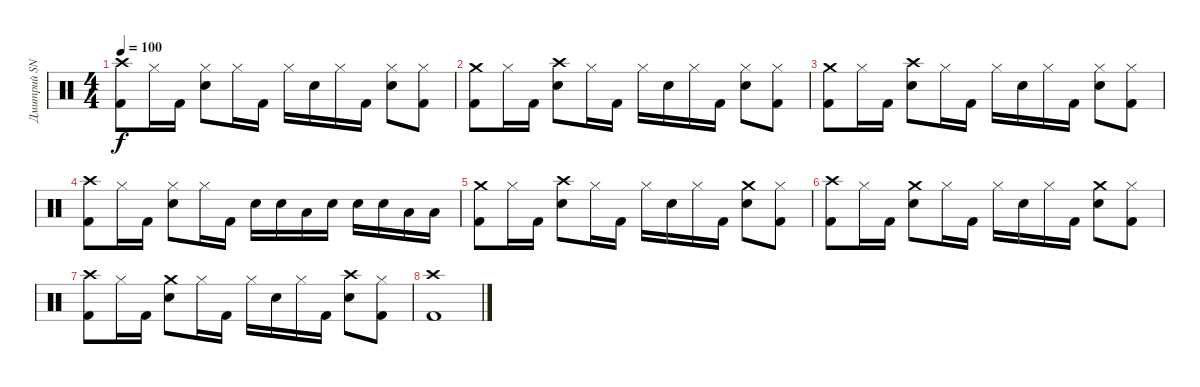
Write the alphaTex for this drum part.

\track ("Дмитрий SNAKE Хакимов" "Дмитрий SN") {instrument percussion}
\staff {score}
\articulation defaults
\ts (4 4)
\tempo 100
\clef neutral
\ks c
("Crash high (hit)" "Kick (hit) 2").8{dy f} "Hi-Hat (closed)".16 "Kick (hit) 2".16 ("Hi-Hat (closed)" "Snare (hit) 2").8 "Hi-Hat (closed)".16 "Kick (hit) 2".16 "Hi-Hat (closed)".16 "Snare (hit) 2".16 "Hi-Hat (closed)".16 "Kick (hit) 2".16 ("Hi-Hat (closed)" "Snare (hit) 2").8 ("Hi-Hat (closed)" "Kick (hit) 2").8 |
("Crash medium (hit)" "Kick (hit) 2").8 "Hi-Hat (closed)".16 "Kick (hit) 2".16 ("Crash high (hit)" "Snare (hit) 2").8 "Hi-Hat (closed)".16 "Kick (hit) 2".16 "Hi-Hat (closed)".16 "Snare (hit) 2".16 "Hi-Hat (closed)".16 "Kick (hit) 2".16 ("Hi-Hat (closed)" "Snare (hit) 2").8 ("Hi-Hat (closed)" "Kick (hit) 2").8 |
("Crash medium (hit)" "Kick (hit) 2").8 "Hi-Hat (closed)".16 "Kick (hit) 2".16 ("Crash high (hit)" "Snare (hit) 2").8 "Hi-Hat (closed)".16 "Kick (hit) 2".16 "Hi-Hat (closed)".16 "Snare (hit) 2".16 "Hi-Hat (closed)".16 "Kick (hit) 2".16 ("Hi-Hat (closed)" "Snare (hit) 2").8 ("Hi-Hat (closed)" "Kick (hit) 2").8 |
("Crash high (hit)" "Kick (hit) 2").8 "Hi-Hat (closed)".16 "Kick (hit) 2".16 ("Hi-Hat (closed)" "Snare (hit) 2").8 "Hi-Hat (closed)".16 "Kick (hit) 2".16 "Snare (hit) 2".16 "Snare (hit) 2".16 "Low Tom (hit)".16 "Snare (hit) 2".16 "Snare (hit) 2".16 "Snare (hit) 2".16 "Low Tom (hit)".16 "Low Tom (hit)".16 |
("Crash medium (hit)" "Kick (hit) 2").8 "Hi-Hat (closed)".16 "Kick (hit) 2".16 ("Crash high (hit)" "Snare (hit) 2").8 "Hi-Hat (closed)".16 "Kick (hit) 2".16 "Hi-Hat (closed)".16 "Snare (hit) 2".16 "Hi-Hat (closed)".16 "Kick (hit) 2".16 ("Crash medium (hit)" "Snare (hit) 2").8 ("Hi-Hat (closed)" "Kick (hit) 2").8 |
("Crash high (hit)" "Kick (hit) 2").8 "Hi-Hat (closed)".16 "Kick (hit) 2".16 ("Crash medium (hit)" "Snare (hit) 2").8 "Hi-Hat (closed)".16 "Kick (hit) 2".16 "Hi-Hat (closed)".16 "Snare (hit) 2".16 "Hi-Hat (closed)".16 "Kick (hit) 2".16 ("Crash medium (hit)" "Snare (hit) 2").8 ("Hi-Hat (closed)" "Kick (hit) 2").8 |
("Crash high (hit)" "Kick (hit) 2").8 "Hi-Hat (closed)".16 "Kick (hit) 2".16 ("Crash medium (hit)" "Snare (hit) 2").8 "Hi-Hat (closed)".16 "Kick (hit) 2".16 "Hi-Hat (closed)".16 "Snare (hit) 2".16 "Hi-Hat (closed)".16 "Kick (hit) 2".16 ("Crash high (hit)" "Snare (hit) 2").8 ("Hi-Hat (closed)" "Kick (hit) 2").8 |
("Crash high (hit)" "Kick (hit) 2").1
